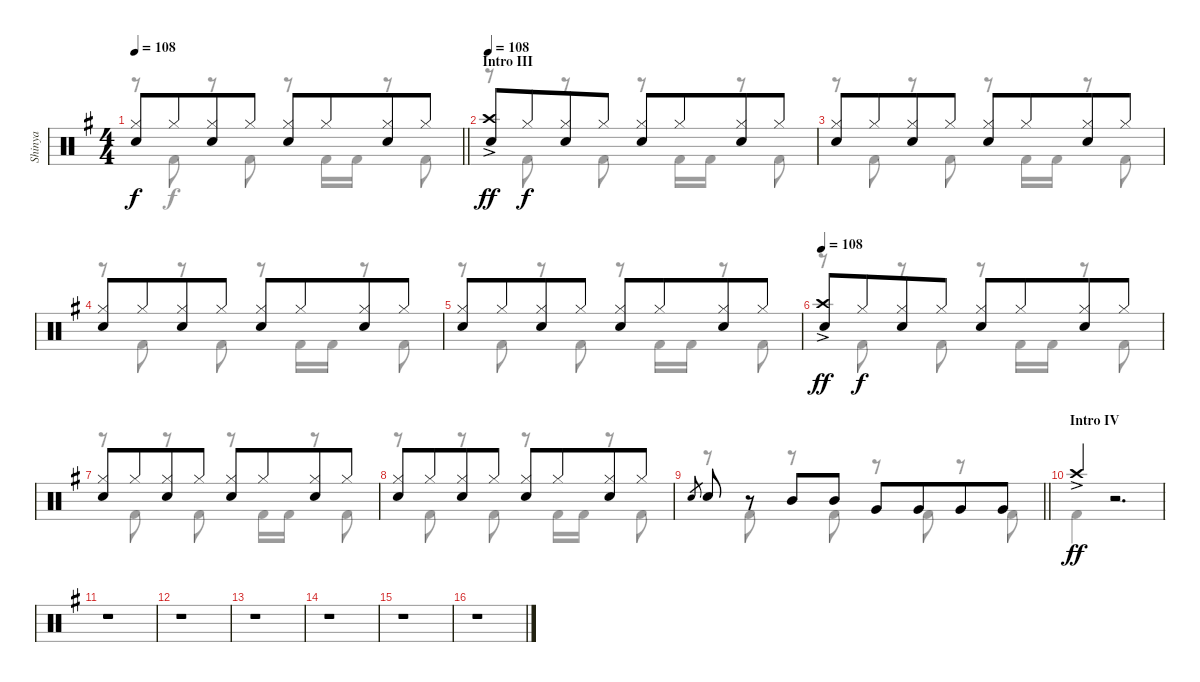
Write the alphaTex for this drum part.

\track ("Shinya" "Shinya") {instrument percussion}
\staff {score}
\articulation defaults
\voice
\ts (4 4)
\tempo 108
\clef neutral
\barLineRight lightlight
\ks eminor
("Hi-Hat (closed)" "Snare (hit) 2").8{dy f} "Hi-Hat (closed)".8{beam merge} ("Hi-Hat (closed)" "Snare (hit) 2").8 "Hi-Hat (closed)".8 ("Hi-Hat (closed)" "Snare (hit) 2").8 "Hi-Hat (closed)".8{beam merge} ("Hi-Hat (closed)" "Snare (hit) 2").8 "Hi-Hat (closed)".8 |
\section ("" "Intro III")
\tempo 108
("Crash high (hit)"{ac} "Snare (hit) 2").8{dy ff} "Hi-Hat (closed)".8{dy f beam merge} ("Hi-Hat (closed)" "Snare (hit) 2").8 "Hi-Hat (closed)".8 ("Hi-Hat (closed)" "Snare (hit) 2").8 "Hi-Hat (closed)".8{beam merge} ("Hi-Hat (closed)" "Snare (hit) 2").8 "Hi-Hat (closed)".8 |
("Hi-Hat (closed)" "Snare (hit) 2").8 "Hi-Hat (closed)".8{beam merge} ("Hi-Hat (closed)" "Snare (hit) 2").8 "Hi-Hat (closed)".8 ("Hi-Hat (closed)" "Snare (hit) 2").8 "Hi-Hat (closed)".8{beam merge} ("Hi-Hat (closed)" "Snare (hit) 2").8 "Hi-Hat (closed)".8 |
("Hi-Hat (closed)" "Snare (hit) 2").8 "Hi-Hat (closed)".8{beam merge} ("Hi-Hat (closed)" "Snare (hit) 2").8 "Hi-Hat (closed)".8 ("Hi-Hat (closed)" "Snare (hit) 2").8 "Hi-Hat (closed)".8{beam merge} ("Hi-Hat (closed)" "Snare (hit) 2").8 "Hi-Hat (closed)".8 |
("Hi-Hat (closed)" "Snare (hit) 2").8 "Hi-Hat (closed)".8{beam merge} ("Hi-Hat (closed)" "Snare (hit) 2").8 "Hi-Hat (closed)".8 ("Hi-Hat (closed)" "Snare (hit) 2").8 "Hi-Hat (closed)".8{beam merge} ("Hi-Hat (closed)" "Snare (hit) 2").8 "Hi-Hat (closed)".8 |
\tempo 108
("Crash high (hit)"{ac} "Snare (hit) 2").8{dy ff} "Hi-Hat (closed)".8{dy f beam merge} ("Hi-Hat (closed)" "Snare (hit) 2").8 "Hi-Hat (closed)".8 ("Hi-Hat (closed)" "Snare (hit) 2").8 "Hi-Hat (closed)".8{beam merge} ("Hi-Hat (closed)" "Snare (hit) 2").8 "Hi-Hat (closed)".8 |
("Hi-Hat (closed)" "Snare (hit) 2").8 "Hi-Hat (closed)".8{beam merge} ("Hi-Hat (closed)" "Snare (hit) 2").8 "Hi-Hat (closed)".8 ("Hi-Hat (closed)" "Snare (hit) 2").8 "Hi-Hat (closed)".8{beam merge} ("Hi-Hat (closed)" "Snare (hit) 2").8 "Hi-Hat (closed)".8 |
("Hi-Hat (closed)" "Snare (hit) 2").8 "Hi-Hat (closed)".8{beam merge} ("Hi-Hat (closed)" "Snare (hit) 2").8 "Hi-Hat (closed)".8 ("Hi-Hat (closed)" "Snare (hit) 2").8 "Hi-Hat (closed)".8{beam merge} ("Hi-Hat (closed)" "Snare (hit) 2").8 "Hi-Hat (closed)".8 |
\barLineRight lightlight "Snare (hit) 2".8{gr} "Snare (hit) 2".8
r.8 "Mid Tom (hit)".8 "Mid Tom (hit)".8 "Very Low Tom (hit)".8 "Very Low Tom (hit)".8{beam merge} "Very Low Tom (hit)".8 "Very Low Tom (hit)".8 |
\section ("" "Intro IV")
"Crash high (hit)"{ac}.4{dy ff} r.2{d} |
r.1 |
r.1 |
r.1 |
r.1 |
r.1 |
r.1
\voice
\clef neutral
\ottava regular
\simile none
\barLineRight lightlight
\ks eminor
r.8{dy f} "Kick (hit) 2".8 r.8 "Kick (hit) 2".8 r.8 "Kick (hit) 2".16 "Kick (hit) 2".16 r.8 "Kick (hit) 2".8 |
r.8 "Kick (hit) 2".8 r.8 "Kick (hit) 2".8 r.8 "Kick (hit) 2".16 "Kick (hit) 2".16 r.8 "Kick (hit) 2".8 |
r.8 "Kick (hit) 2".8 r.8 "Kick (hit) 2".8 r.8 "Kick (hit) 2".16 "Kick (hit) 2".16 r.8 "Kick (hit) 2".8 |
r.8 "Kick (hit) 2".8 r.8 "Kick (hit) 2".8 r.8 "Kick (hit) 2".16 "Kick (hit) 2".16 r.8 "Kick (hit) 2".8 |
r.8 "Kick (hit) 2".8 r.8 "Kick (hit) 2".8 r.8 "Kick (hit) 2".16 "Kick (hit) 2".16 r.8 "Kick (hit) 2".8 |
r.8 "Kick (hit) 2".8 r.8 "Kick (hit) 2".8 r.8 "Kick (hit) 2".16 "Kick (hit) 2".16 r.8 "Kick (hit) 2".8 |
r.8 "Kick (hit) 2".8 r.8 "Kick (hit) 2".8 r.8 "Kick (hit) 2".16 "Kick (hit) 2".16 r.8 "Kick (hit) 2".8 |
r.8 "Kick (hit) 2".8 r.8 "Kick (hit) 2".8 r.8 "Kick (hit) 2".16 "Kick (hit) 2".16 r.8 "Kick (hit) 2".8 |
\barLineRight lightlight
r.8 "Kick (hit) 2".8 r.8 "Kick (hit) 2".8 r.8 "Kick (hit) 2".8 r.8 "Kick (hit) 2".8 |
"Kick (hit) 2".4 r.2{d} |
r.1 |
r.1 |
r.1 |
r.1 |
r.1 |
r.1
